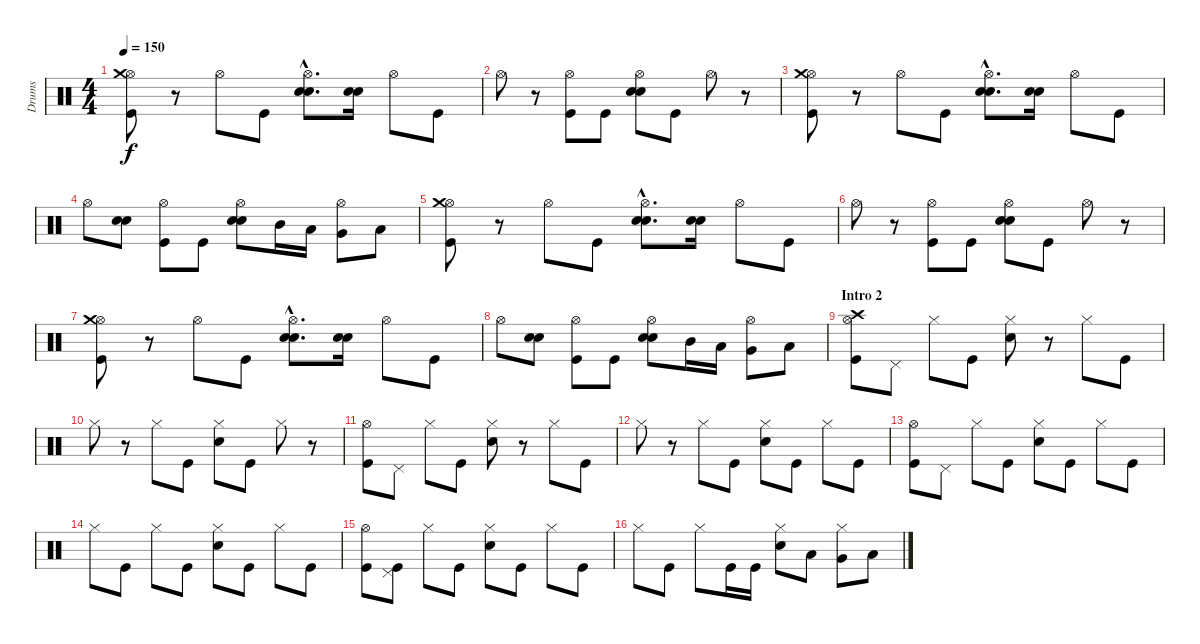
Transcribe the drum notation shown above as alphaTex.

\track ("Drums" "Drums") {instrument percussion}
\staff {score}
\articulation defaults
\ts (4 4)
\tempo 150
\clef neutral
\ks c
("Kick (hit)" "Hi-Hat (open)" "Crash medium (hit)").8{dy f} r.8 "Hi-Hat (open)".8 "Kick (hit)".8 ("Electric Snare (hit)"{hac} "Electric Snare (hit)"{hac} "Hi-Hat (open)"{hac}).8{d} ("Electric Snare (hit)" "Electric Snare (hit)").16 "Hi-Hat (open)".8 "Kick (hit)".8 |
"Hi-Hat (open)".8 r.8 ("Kick (hit)" "Hi-Hat (open)").8 "Kick (hit)".8 ("Electric Snare (hit)" "Electric Snare (hit)" "Hi-Hat (open)").8 "Kick (hit)".8 "Hi-Hat (open)".8 r.8 |
("Kick (hit)" "Hi-Hat (open)" "Crash medium (hit)").8 r.8 "Hi-Hat (open)".8 "Kick (hit)".8 ("Electric Snare (hit)"{hac} "Electric Snare (hit)"{hac} "Hi-Hat (open)"{hac}).8{d} ("Electric Snare (hit)" "Electric Snare (hit)").16 "Hi-Hat (open)".8 "Kick (hit)".8 |
"Hi-Hat (open)".8 ("Electric Snare (hit)" "Electric Snare (hit)").8 ("Kick (hit)" "Hi-Hat (open)").8 "Kick (hit)".8 ("Electric Snare (hit)" "Electric Snare (hit)" "Hi-Hat (open)").8 "Mid Tom (hit)".16 "Low Tom (hit)".16 ("Very Low Tom (hit)" "Hi-Hat (open)").8 "Low Floor Tom (hit)".8 |
("Kick (hit)" "Hi-Hat (open)" "Crash medium (hit)").8 r.8 "Hi-Hat (open)".8 "Kick (hit)".8 ("Electric Snare (hit)"{hac} "Electric Snare (hit)"{hac} "Hi-Hat (open)"{hac}).8{d} ("Electric Snare (hit)" "Electric Snare (hit)").16 "Hi-Hat (open)".8 "Kick (hit)".8 |
"Hi-Hat (open)".8 r.8 ("Kick (hit)" "Hi-Hat (open)").8 "Kick (hit)".8 ("Electric Snare (hit)" "Electric Snare (hit)" "Hi-Hat (open)").8 "Kick (hit)".8 "Hi-Hat (open)".8 r.8 |
("Kick (hit)" "Hi-Hat (open)" "Crash medium (hit)").8 r.8 "Hi-Hat (open)".8 "Kick (hit)".8 ("Electric Snare (hit)"{hac} "Electric Snare (hit)"{hac} "Hi-Hat (open)"{hac}).8{d} ("Electric Snare (hit)" "Electric Snare (hit)").16 "Hi-Hat (open)".8 "Kick (hit)".8 |
"Hi-Hat (open)".8 ("Electric Snare (hit)" "Electric Snare (hit)").8 ("Kick (hit)" "Hi-Hat (open)").8 "Kick (hit)".8 ("Electric Snare (hit)" "Electric Snare (hit)" "Hi-Hat (open)").8 "Mid Tom (hit)".16 "Low Tom (hit)".16 ("Very Low Tom (hit)" "Hi-Hat (open)").8 "Low Floor Tom (hit)".8 |
\section ("" "Intro 2")
("Kick (hit)" "Hi-Hat (open)" "Crash high (hit)").8 "Pedal Hi-Hat (hit)".8 "Hi-Hat (closed)".8 "Kick (hit)".8 ("Electric Snare (hit)" "Hi-Hat (closed)").8 r.8 "Hi-Hat (closed)".8 "Kick (hit)".8 |
"Hi-Hat (closed)".8 r.8 "Hi-Hat (closed)".8 "Kick (hit)".8 ("Electric Snare (hit)" "Hi-Hat (closed)").8 "Kick (hit)".8 "Hi-Hat (closed)".8 r.8 |
("Kick (hit)" "Hi-Hat (open)").8 "Pedal Hi-Hat (hit)".8 "Hi-Hat (closed)".8 "Kick (hit)".8 ("Electric Snare (hit)" "Hi-Hat (closed)").8 r.8 "Hi-Hat (closed)".8 "Kick (hit)".8 |
"Hi-Hat (closed)".8 r.8 "Hi-Hat (closed)".8 "Kick (hit)".8 ("Electric Snare (hit)" "Hi-Hat (closed)").8 "Kick (hit)".8 "Hi-Hat (closed)".8 "Kick (hit)".8 |
("Kick (hit)" "Hi-Hat (open)").8 "Pedal Hi-Hat (hit)".8 "Hi-Hat (closed)".8 "Kick (hit)".8 ("Electric Snare (hit)" "Hi-Hat (closed)").8 "Kick (hit)".8 "Hi-Hat (closed)".8 "Kick (hit)".8 |
"Hi-Hat (closed)".8 "Kick (hit)".8 "Hi-Hat (closed)".8 "Kick (hit)".8 ("Electric Snare (hit)" "Hi-Hat (closed)").8 "Kick (hit)".8 "Hi-Hat (closed)".8 "Kick (hit)".8 |
("Kick (hit)" "Hi-Hat (open)").8 ("Kick (hit)" "Pedal Hi-Hat (hit)").8 "Hi-Hat (closed)".8 "Kick (hit)".8 ("Electric Snare (hit)" "Hi-Hat (closed)").8 "Kick (hit)".8 "Hi-Hat (closed)".8 "Kick (hit)".8 |
"Hi-Hat (closed)".8 "Kick (hit)".8 "Hi-Hat (closed)".8 "Kick (hit)".16 "Kick (hit)".16 ("Electric Snare (hit)" "Hi-Hat (closed)").8 "Low Tom (hit)".8 ("Very Low Tom (hit)" "Hi-Hat (closed)").8 "Low Floor Tom (hit)".8
